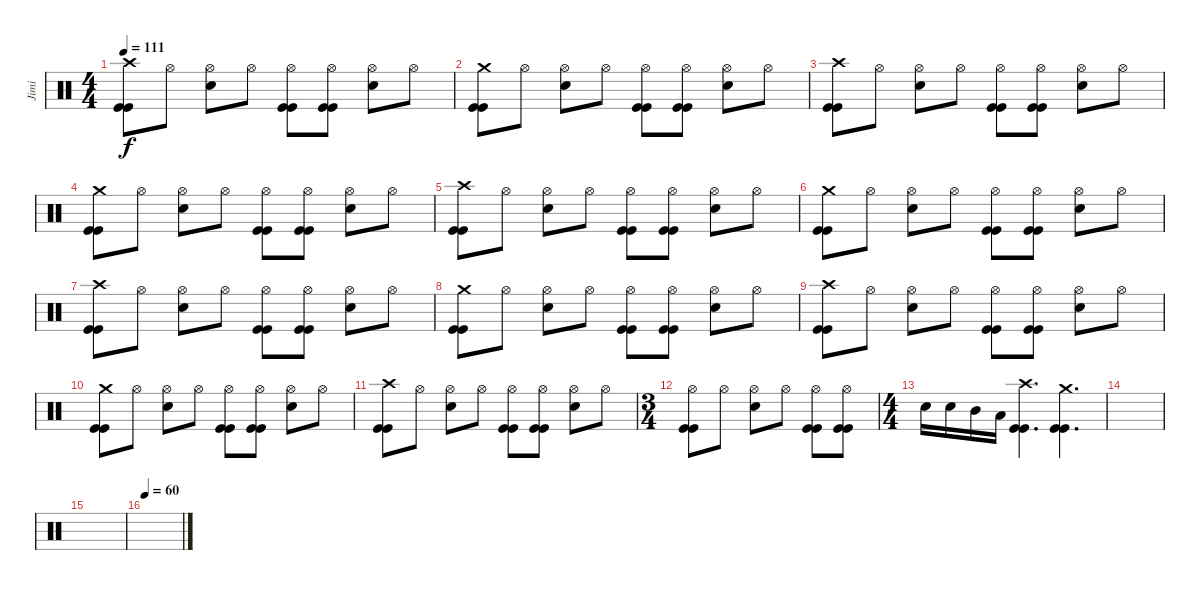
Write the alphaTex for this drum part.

\track ("Jimi" "Jimi") {instrument percussion}
\staff {score}
\articulation defaults
\ts (4 4)
\tempo 111
\clef neutral
\ks c
("Crash high (hit)" "Kick (hit)" "Kick (hit)").8{dy f} "Hi-Hat (open)".8 ("Hi-Hat (open)" "Electric Snare (hit)").8 "Hi-Hat (open)".8 ("Hi-Hat (open)" "Kick (hit)" "Kick (hit)").8 ("Hi-Hat (open)" "Kick (hit)" "Kick (hit)").8 ("Hi-Hat (open)" "Electric Snare (hit)").8 "Hi-Hat (open)".8 |
("Crash medium (hit)" "Kick (hit)" "Kick (hit)").8 "Hi-Hat (open)".8 ("Hi-Hat (open)" "Electric Snare (hit)").8 "Hi-Hat (open)".8 ("Hi-Hat (open)" "Kick (hit)" "Kick (hit)").8 ("Hi-Hat (open)" "Kick (hit)" "Kick (hit)").8 ("Hi-Hat (open)" "Electric Snare (hit)").8 "Hi-Hat (open)".8 |
("Crash high (hit)" "Kick (hit)" "Kick (hit)").8 "Hi-Hat (open)".8 ("Hi-Hat (open)" "Electric Snare (hit)").8 "Hi-Hat (open)".8 ("Hi-Hat (open)" "Kick (hit)" "Kick (hit)").8 ("Hi-Hat (open)" "Kick (hit)" "Kick (hit)").8 ("Hi-Hat (open)" "Electric Snare (hit)").8 "Hi-Hat (open)".8 |
("Crash medium (hit)" "Kick (hit)" "Kick (hit)").8 "Hi-Hat (open)".8 ("Hi-Hat (open)" "Electric Snare (hit)").8 "Hi-Hat (open)".8 ("Hi-Hat (open)" "Kick (hit)" "Kick (hit)").8 ("Hi-Hat (open)" "Kick (hit)" "Kick (hit)").8 ("Hi-Hat (open)" "Electric Snare (hit)").8 "Hi-Hat (open)".8 |
("Crash high (hit)" "Kick (hit)" "Kick (hit)").8 "Hi-Hat (open)".8 ("Hi-Hat (open)" "Electric Snare (hit)").8 "Hi-Hat (open)".8 ("Hi-Hat (open)" "Kick (hit)" "Kick (hit)").8 ("Hi-Hat (open)" "Kick (hit)" "Kick (hit)").8 ("Hi-Hat (open)" "Electric Snare (hit)").8 "Hi-Hat (open)".8 |
("Crash medium (hit)" "Kick (hit)" "Kick (hit)").8 "Hi-Hat (open)".8 ("Hi-Hat (open)" "Electric Snare (hit)").8 "Hi-Hat (open)".8 ("Hi-Hat (open)" "Kick (hit)" "Kick (hit)").8 ("Hi-Hat (open)" "Kick (hit)" "Kick (hit)").8 ("Hi-Hat (open)" "Electric Snare (hit)").8 "Hi-Hat (open)".8 |
("Crash high (hit)" "Kick (hit)" "Kick (hit)").8 "Hi-Hat (open)".8 ("Hi-Hat (open)" "Electric Snare (hit)").8 "Hi-Hat (open)".8 ("Hi-Hat (open)" "Kick (hit)" "Kick (hit)").8 ("Hi-Hat (open)" "Kick (hit)" "Kick (hit)").8 ("Hi-Hat (open)" "Electric Snare (hit)").8 "Hi-Hat (open)".8 |
("Crash medium (hit)" "Kick (hit)" "Kick (hit)").8 "Hi-Hat (open)".8 ("Hi-Hat (open)" "Electric Snare (hit)").8 "Hi-Hat (open)".8 ("Hi-Hat (open)" "Kick (hit)" "Kick (hit)").8 ("Hi-Hat (open)" "Kick (hit)" "Kick (hit)").8 ("Hi-Hat (open)" "Electric Snare (hit)").8 "Hi-Hat (open)".8 |
("Crash high (hit)" "Kick (hit)" "Kick (hit)").8 "Hi-Hat (open)".8 ("Hi-Hat (open)" "Electric Snare (hit)").8 "Hi-Hat (open)".8 ("Hi-Hat (open)" "Kick (hit)" "Kick (hit)").8 ("Hi-Hat (open)" "Kick (hit)" "Kick (hit)").8 ("Hi-Hat (open)" "Electric Snare (hit)").8 "Hi-Hat (open)".8 |
("Crash medium (hit)" "Kick (hit)" "Kick (hit)").8 "Hi-Hat (open)".8 ("Hi-Hat (open)" "Electric Snare (hit)").8 "Hi-Hat (open)".8 ("Hi-Hat (open)" "Kick (hit)" "Kick (hit)").8 ("Hi-Hat (open)" "Kick (hit)" "Kick (hit)").8 ("Hi-Hat (open)" "Electric Snare (hit)").8 "Hi-Hat (open)".8 |
("Crash high (hit)" "Kick (hit)" "Kick (hit)").8 "Hi-Hat (open)".8 ("Hi-Hat (open)" "Electric Snare (hit)").8 "Hi-Hat (open)".8 ("Hi-Hat (open)" "Kick (hit)" "Kick (hit)").8 ("Hi-Hat (open)" "Kick (hit)" "Kick (hit)").8 ("Hi-Hat (open)" "Electric Snare (hit)").8 "Hi-Hat (open)".8 |
\ts (3 4)
("Hi-Hat (open)" "Kick (hit)" "Kick (hit)").8 "Hi-Hat (open)".8 ("Hi-Hat (open)" "Electric Snare (hit)").8 "Hi-Hat (open)".8 ("Hi-Hat (open)" "Kick (hit)" "Kick (hit)").8 ("Hi-Hat (open)" "Kick (hit)" "Kick (hit)").8 |
\ts (4 4)
"Electric Snare (hit)".16 "Electric Snare (hit)".16 "Mid Tom (hit)".16 "Low Tom (hit)".16 ("Crash high (hit)" "Kick (hit)" "Kick (hit)").4{d} ("Crash medium (hit)" "Kick (hit)" "Kick (hit)").4{d} |
|
|
\tempo 60
